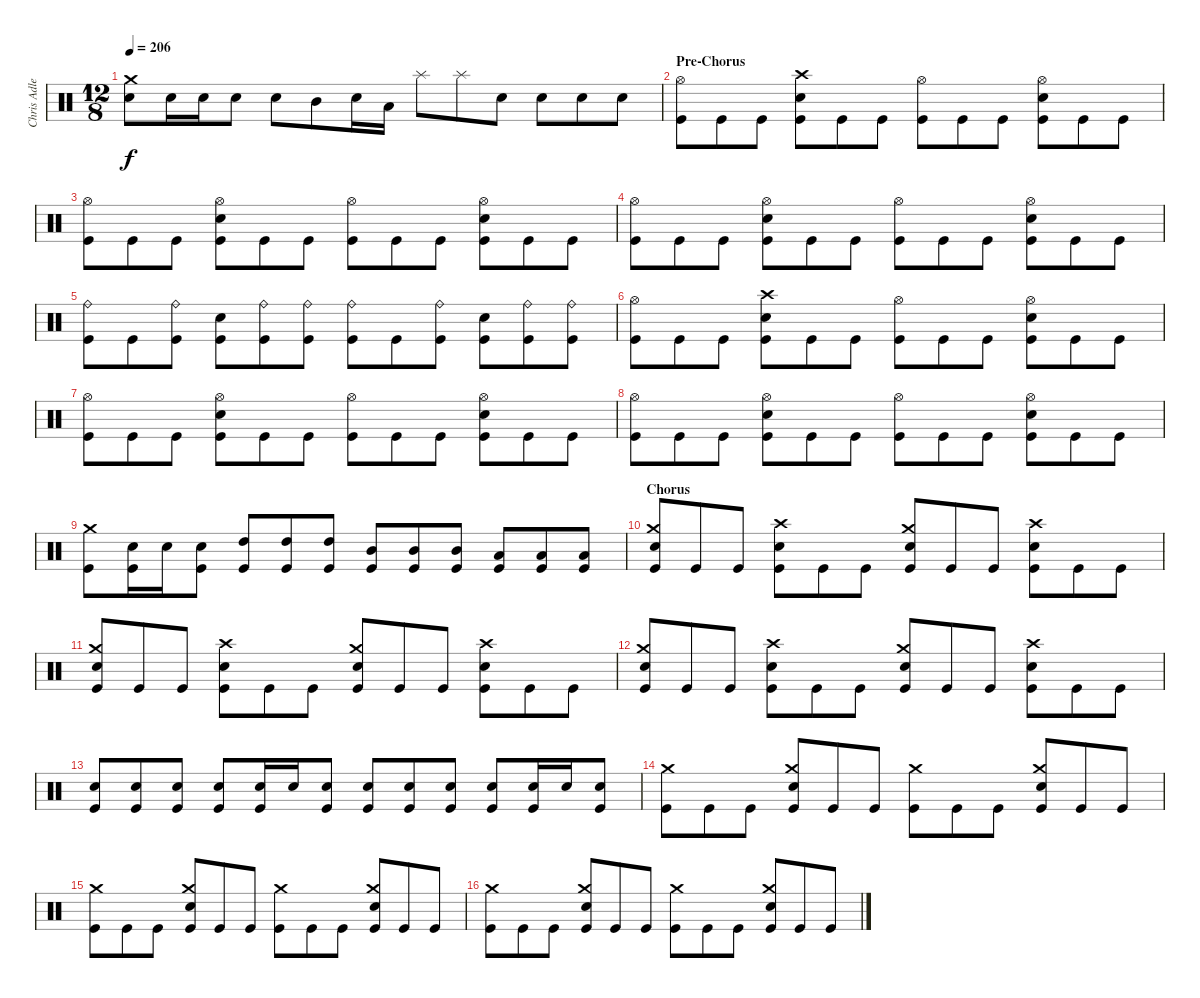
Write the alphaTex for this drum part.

\track ("Chris Adler" "Chris Adle") {instrument percussion}
\staff {score}
\articulation defaults
\ts (12 8)
\tempo 206
\clef neutral
\ks c
("Snare (hit) 2" "Crash medium (hit)").8{dy f} "Snare (hit) 2".16 "Snare (hit) 2".16 "Snare (hit) 2".8 "Snare (hit) 2".8 "Mid Tom (hit)".8 "Snare (hit) 2".16 "Low Tom (hit)".16 "Splash (hit)".8 "Splash (hit)".8 "Snare (hit) 2".8 "Snare (hit) 2".8 "Snare (hit) 2".8 "Snare (hit) 2".8 |
\section ("" "Pre-Chorus")
("Kick (hit)" "Hi-Hat (open)").8 "Kick (hit)".8 "Kick (hit)".8 ("Snare (hit) 2" "Kick (hit)" "Crash high (hit)").8 "Kick (hit)".8 "Kick (hit)".8 ("Kick (hit)" "Hi-Hat (open)").8 "Kick (hit)".8 "Kick (hit)".8 ("Snare (hit) 2" "Kick (hit)" "Hi-Hat (open)").8 "Kick (hit)".8 "Kick (hit)".8 |
("Kick (hit)" "Hi-Hat (open)").8 "Kick (hit)".8 "Kick (hit)".8 ("Snare (hit) 2" "Kick (hit)" "Hi-Hat (open)").8 "Kick (hit)".8 "Kick (hit)".8 ("Kick (hit)" "Hi-Hat (open)").8 "Kick (hit)".8 "Kick (hit)".8 ("Snare (hit) 2" "Kick (hit)" "Hi-Hat (open)").8 "Kick (hit)".8 "Kick (hit)".8 |
("Kick (hit)" "Hi-Hat (open)").8 "Kick (hit)".8 "Kick (hit)".8 ("Snare (hit) 2" "Kick (hit)" "Hi-Hat (open)").8 "Kick (hit)".8 "Kick (hit)".8 ("Kick (hit)" "Hi-Hat (open)").8 "Kick (hit)".8 "Kick (hit)".8 ("Snare (hit) 2" "Kick (hit)" "Hi-Hat (open)").8 "Kick (hit)".8 "Kick (hit)".8 |
("Ride (bell)" "Kick (hit)").8 "Kick (hit)".8 ("Ride (bell)" "Kick (hit)").8 ("Snare (hit) 2" "Kick (hit)").8 ("Ride (bell)" "Kick (hit)").8 ("Ride (bell)" "Kick (hit)").8 ("Ride (bell)" "Kick (hit)").8 "Kick (hit)".8 ("Ride (bell)" "Kick (hit)").8 ("Snare (hit) 2" "Kick (hit)").8 ("Ride (bell)" "Kick (hit)").8 ("Ride (bell)" "Kick (hit)").8 |
("Kick (hit)" "Hi-Hat (open)").8 "Kick (hit)".8 "Kick (hit)".8 ("Snare (hit) 2" "Kick (hit)" "Crash high (hit)").8 "Kick (hit)".8 "Kick (hit)".8 ("Kick (hit)" "Hi-Hat (open)").8 "Kick (hit)".8 "Kick (hit)".8 ("Snare (hit) 2" "Kick (hit)" "Hi-Hat (open)").8 "Kick (hit)".8 "Kick (hit)".8 |
("Kick (hit)" "Hi-Hat (open)").8 "Kick (hit)".8 "Kick (hit)".8 ("Snare (hit) 2" "Kick (hit)" "Hi-Hat (open)").8 "Kick (hit)".8 "Kick (hit)".8 ("Kick (hit)" "Hi-Hat (open)").8 "Kick (hit)".8 "Kick (hit)".8 ("Snare (hit) 2" "Kick (hit)" "Hi-Hat (open)").8 "Kick (hit)".8 "Kick (hit)".8 |
("Kick (hit)" "Hi-Hat (open)").8 "Kick (hit)".8 "Kick (hit)".8 ("Snare (hit) 2" "Kick (hit)" "Hi-Hat (open)").8 "Kick (hit)".8 "Kick (hit)".8 ("Kick (hit)" "Hi-Hat (open)").8 "Kick (hit)".8 "Kick (hit)".8 ("Snare (hit) 2" "Kick (hit)" "Hi-Hat (open)").8 "Kick (hit)".8 "Kick (hit)".8 |
("Crash medium (hit)" "Kick (hit)").8 ("Snare (hit) 2" "Kick (hit)").16 "Snare (hit) 2".16 ("Snare (hit) 2" "Kick (hit)").8 ("High Tom (hit)" "Kick (hit)").8 ("High Tom (hit)" "Kick (hit)").8 ("High Tom (hit)" "Kick (hit)").8 ("Mid Tom (hit)" "Kick (hit)").8 ("Mid Tom (hit)" "Kick (hit)").8 ("Mid Tom (hit)" "Kick (hit)").8 ("Low Tom (hit)" "Kick (hit)").8 ("Low Tom (hit)" "Kick (hit)").8 ("Low Tom (hit)" "Kick (hit)").8 |
\section ("" "Chorus")
("Crash medium (hit)" "Snare (hit) 2" "Kick (hit)").8 "Kick (hit)".8 "Kick (hit)".8 ("Crash high (hit)" "Snare (hit) 2" "Kick (hit)").8 "Kick (hit)".8 "Kick (hit)".8 ("Crash medium (hit)" "Snare (hit) 2" "Kick (hit)").8 "Kick (hit)".8 "Kick (hit)".8 ("Crash high (hit)" "Snare (hit) 2" "Kick (hit)").8 "Kick (hit)".8 "Kick (hit)".8 |
("Crash medium (hit)" "Snare (hit) 2" "Kick (hit)").8 "Kick (hit)".8 "Kick (hit)".8 ("Crash high (hit)" "Snare (hit) 2" "Kick (hit)").8 "Kick (hit)".8 "Kick (hit)".8 ("Crash medium (hit)" "Snare (hit) 2" "Kick (hit)").8 "Kick (hit)".8 "Kick (hit)".8 ("Crash high (hit)" "Snare (hit) 2" "Kick (hit)").8 "Kick (hit)".8 "Kick (hit)".8 |
("Crash medium (hit)" "Snare (hit) 2" "Kick (hit)").8 "Kick (hit)".8 "Kick (hit)".8 ("Crash high (hit)" "Snare (hit) 2" "Kick (hit)").8 "Kick (hit)".8 "Kick (hit)".8 ("Crash medium (hit)" "Snare (hit) 2" "Kick (hit)").8 "Kick (hit)".8 "Kick (hit)".8 ("Crash high (hit)" "Kick (hit)" "Snare (hit) 2").8 "Kick (hit)".8 "Kick (hit)".8 |
("Snare (hit) 2" "Kick (hit)").8 ("Snare (hit) 2" "Kick (hit)").8 ("Snare (hit) 2" "Kick (hit)").8 ("Snare (hit) 2" "Kick (hit)").8 ("Snare (hit) 2" "Kick (hit)").16 "Snare (hit) 2".16 ("Snare (hit) 2" "Kick (hit)").8 ("Snare (hit) 2" "Kick (hit)").8 ("Snare (hit) 2" "Kick (hit)").8 ("Snare (hit) 2" "Kick (hit)").8 ("Snare (hit) 2" "Kick (hit)").8 ("Snare (hit) 2" "Kick (hit)").16 "Snare (hit) 2".16 ("Snare (hit) 2" "Kick (hit)").8 |
("Kick (hit)" "Crash medium (hit)").8 "Kick (hit)".8 "Kick (hit)".8 ("Snare (hit) 2" "Kick (hit)" "Crash medium (hit)").8 "Kick (hit)".8 "Kick (hit)".8 ("Kick (hit)" "Crash medium (hit)").8 "Kick (hit)".8 "Kick (hit)".8 ("Snare (hit) 2" "Kick (hit)" "Crash medium (hit)").8 "Kick (hit)".8 "Kick (hit)".8 |
("Kick (hit)" "Crash medium (hit)").8 "Kick (hit)".8 "Kick (hit)".8 ("Snare (hit) 2" "Kick (hit)" "Crash medium (hit)").8 "Kick (hit)".8 "Kick (hit)".8 ("Kick (hit)" "Crash medium (hit)").8 "Kick (hit)".8 "Kick (hit)".8 ("Snare (hit) 2" "Kick (hit)" "Crash medium (hit)").8 "Kick (hit)".8 "Kick (hit)".8 |
("Kick (hit)" "Crash medium (hit)").8 "Kick (hit)".8 "Kick (hit)".8 ("Snare (hit) 2" "Kick (hit)" "Crash medium (hit)").8 "Kick (hit)".8 "Kick (hit)".8 ("Kick (hit)" "Crash medium (hit)").8 "Kick (hit)".8 "Kick (hit)".8 ("Snare (hit) 2" "Kick (hit)" "Crash medium (hit)").8 "Kick (hit)".8 "Kick (hit)".8
